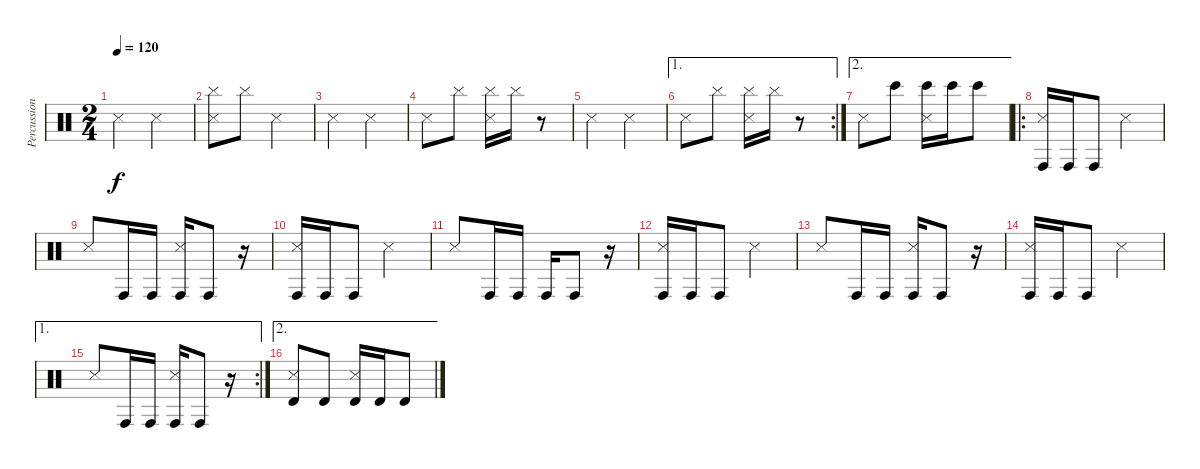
\track ("Percussion" "Percussion") {instrument percussion}
\staff {score}
\articulation defaults
\ts (2 4)
\tempo 120
\clef neutral
\ks aminor "Snare (side stick) 3".4{dy f} "Snare (side stick) 3".4
|
("Cymbal (hit)" "Snare (side stick) 3").8 "Cymbal (hit)".8 "Snare (side stick) 3".4 |
"Snare (side stick) 3".4 "Snare (side stick) 3".4 |
"Snare (side stick) 3".8 "Cymbal (hit)".8 ("Cymbal (hit)" "Snare (side stick) 3").16 "Cymbal (hit)".16 r.8 |
"Snare (side stick) 3".4 "Snare (side stick) 3".4 |
\ae 1
\rc 2 "Snare (side stick) 3".8 "Cymbal (hit)".8
("Cymbal (hit)" "Snare (side stick) 3").16 "Cymbal (hit)".16 r.8 |
\ae 2 "Snare (side stick) 3".8 "Bongo High (hit)".8
("Bongo High (hit)" "Snare (side stick) 3").16 "Bongo High (hit)".16 "Bongo High (hit)".8 |
\ro
("Conga high (hit)" "Snare (side stick) 3").16 "Conga high (hit)".16 "Conga high (hit)".8 "Snare (side stick) 3".4 |
"Snare (side stick) 3".8 "Conga high (hit)".16 "Conga high (hit)".16 ("Conga high (hit)" "Snare (side stick) 3").16 "Conga high (hit)".8 r.16 |
("Conga high (hit)" "Snare (side stick) 3").16 "Conga high (hit)".16 "Conga high (hit)".8 "Snare (side stick) 3".4 |
"Snare (side stick) 3".8 "Conga high (hit)".16 "Conga high (hit)".16 "Conga high (hit)".16 "Conga high (hit)".8 r.16 |
("Conga high (hit)" "Snare (side stick) 3").16 "Conga high (hit)".16 "Conga high (hit)".8 "Snare (side stick) 3".4 |
"Snare (side stick) 3".8 "Conga high (hit)".16 "Conga high (hit)".16 ("Conga high (hit)" "Snare (side stick) 3").16 "Conga high (hit)".8 r.16 |
("Conga high (hit)" "Snare (side stick) 3").16 "Conga high (hit)".16 "Conga high (hit)".8 "Snare (side stick) 3".4 |
\ae 1
\rc 2 "Snare (side stick) 3".8 "Conga high (hit)".16 "Conga high (hit)".16
("Conga high (hit)" "Snare (side stick) 3").16 "Conga high (hit)".8 r.16 |
\ae 2
("Snare (side stick) 3" "Timbale high (hit)").8 "Timbale high (hit)".8 ("Snare (side stick) 3" "Timbale high (hit)").16 "Timbale high (hit)".16 "Timbale high (hit)".8
